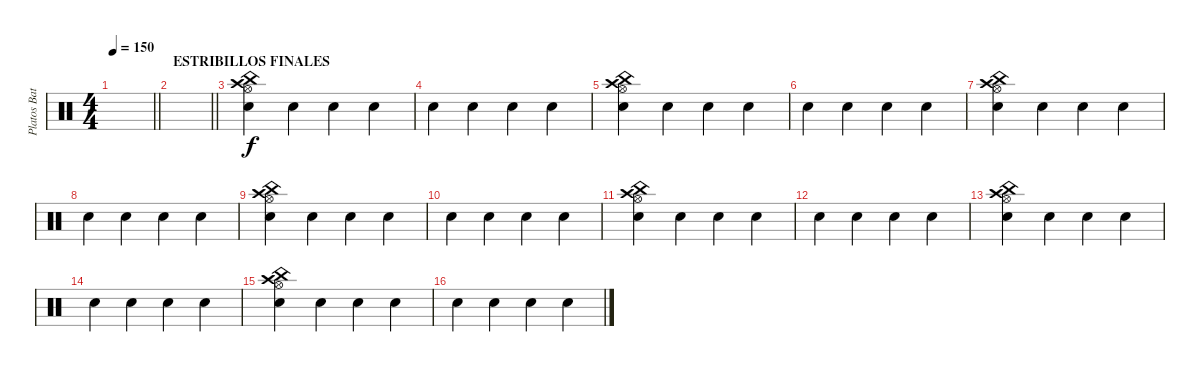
\track ("Platos Batería" "Platos Bat") {instrument percussion}
\staff {score}
\articulation defaults
\ts (4 4)
\tempo 150
\clef neutral
\barLineRight lightlight
\ks c
|
\section ("" "ESTRIBILLOS FINALES")
\barLineRight lightlight
|
("Crash high (hit)" "China (hit)" "Hi-Hat (open)" "Hand Clap (hit)").4 "Hand Clap (hit)".4 "Hand Clap (hit)".4 "Hand Clap (hit)".4 |
"Hand Clap (hit)".4 "Hand Clap (hit)".4 "Hand Clap (hit)".4 "Hand Clap (hit)".4 |
("Crash high (hit)" "China (hit)" "Hi-Hat (open)" "Hand Clap (hit)").4 "Hand Clap (hit)".4 "Hand Clap (hit)".4 "Hand Clap (hit)".4 |
"Hand Clap (hit)".4 "Hand Clap (hit)".4 "Hand Clap (hit)".4 "Hand Clap (hit)".4 |
("Crash high (hit)" "China (hit)" "Hi-Hat (open)" "Hand Clap (hit)").4 "Hand Clap (hit)".4 "Hand Clap (hit)".4 "Hand Clap (hit)".4 |
"Hand Clap (hit)".4 "Hand Clap (hit)".4 "Hand Clap (hit)".4 "Hand Clap (hit)".4 |
("Crash high (hit)" "China (hit)" "Hi-Hat (open)" "Hand Clap (hit)").4 "Hand Clap (hit)".4 "Hand Clap (hit)".4 "Hand Clap (hit)".4 |
"Hand Clap (hit)".4 "Hand Clap (hit)".4 "Hand Clap (hit)".4 "Hand Clap (hit)".4 |
("Crash high (hit)" "China (hit)" "Hi-Hat (open)" "Hand Clap (hit)").4 "Hand Clap (hit)".4 "Hand Clap (hit)".4 "Hand Clap (hit)".4 |
"Hand Clap (hit)".4 "Hand Clap (hit)".4 "Hand Clap (hit)".4 "Hand Clap (hit)".4 |
("Crash high (hit)" "China (hit)" "Hi-Hat (open)" "Hand Clap (hit)").4 "Hand Clap (hit)".4 "Hand Clap (hit)".4 "Hand Clap (hit)".4 |
"Hand Clap (hit)".4 "Hand Clap (hit)".4 "Hand Clap (hit)".4 "Hand Clap (hit)".4 |
("Crash high (hit)" "China (hit)" "Hi-Hat (open)" "Hand Clap (hit)").4 "Hand Clap (hit)".4 "Hand Clap (hit)".4 "Hand Clap (hit)".4 |
"Hand Clap (hit)".4 "Hand Clap (hit)".4 "Hand Clap (hit)".4 "Hand Clap (hit)".4
